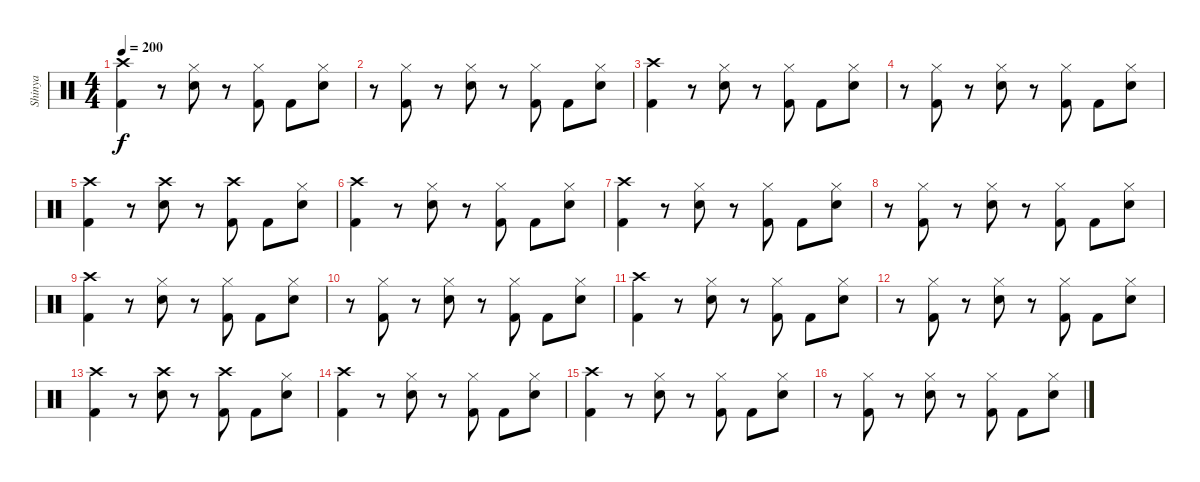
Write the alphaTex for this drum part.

\track ("Shinya" "Shinya") {instrument percussion}
\staff {score}
\articulation defaults
\ts (4 4)
\tempo 200
\clef neutral
\ks c
("Kick (hit) 2" "Crash high (hit)").4{dy f} r.8 ("Electric Snare (hit)" "Hi-Hat (closed)").8 r.8 ("Kick (hit) 2" "Hi-Hat (closed)").8 "Kick (hit) 2".8 ("Electric Snare (hit)" "Hi-Hat (closed)").8 |
r.8 ("Kick (hit) 2" "Hi-Hat (closed)").8 r.8 ("Electric Snare (hit)" "Hi-Hat (closed)").8 r.8 ("Kick (hit) 2" "Hi-Hat (closed)").8 "Kick (hit) 2".8 ("Electric Snare (hit)" "Hi-Hat (closed)").8 |
("Kick (hit) 2" "Crash high (hit)").4 r.8 ("Electric Snare (hit)" "Hi-Hat (closed)").8 r.8 ("Kick (hit) 2" "Hi-Hat (closed)").8 "Kick (hit) 2".8 ("Electric Snare (hit)" "Hi-Hat (closed)").8 |
r.8 ("Kick (hit) 2" "Hi-Hat (closed)").8 r.8 ("Electric Snare (hit)" "Hi-Hat (closed)").8 r.8 ("Kick (hit) 2" "Hi-Hat (closed)").8 "Kick (hit) 2".8 ("Electric Snare (hit)" "Hi-Hat (closed)").8 |
("Kick (hit) 2" "Crash high (hit)").4 r.8 ("Electric Snare (hit)" "Crash high (hit)").8 r.8 ("Kick (hit) 2" "Crash high (hit)").8 "Kick (hit) 2".8 ("Electric Snare (hit)" "Hi-Hat (closed)").8 |
("Kick (hit) 2" "Crash high (hit)").4 r.8 ("Electric Snare (hit)" "Hi-Hat (closed)").8 r.8 ("Kick (hit) 2" "Hi-Hat (closed)").8 "Kick (hit) 2".8 ("Electric Snare (hit)" "Hi-Hat (closed)").8 |
("Kick (hit) 2" "Crash high (hit)").4 r.8 ("Electric Snare (hit)" "Hi-Hat (closed)").8 r.8 ("Kick (hit) 2" "Hi-Hat (closed)").8 "Kick (hit) 2".8 ("Electric Snare (hit)" "Hi-Hat (closed)").8 |
r.8 ("Kick (hit) 2" "Hi-Hat (closed)").8 r.8 ("Electric Snare (hit)" "Hi-Hat (closed)").8 r.8 ("Kick (hit) 2" "Hi-Hat (closed)").8 "Kick (hit) 2".8 ("Electric Snare (hit)" "Hi-Hat (closed)").8 |
("Kick (hit) 2" "Crash high (hit)").4 r.8 ("Electric Snare (hit)" "Hi-Hat (closed)").8 r.8 ("Kick (hit) 2" "Hi-Hat (closed)").8 "Kick (hit) 2".8 ("Electric Snare (hit)" "Hi-Hat (closed)").8 |
r.8 ("Kick (hit) 2" "Hi-Hat (closed)").8 r.8 ("Electric Snare (hit)" "Hi-Hat (closed)").8 r.8 ("Kick (hit) 2" "Hi-Hat (closed)").8 "Kick (hit) 2".8 ("Electric Snare (hit)" "Hi-Hat (closed)").8 |
("Kick (hit) 2" "Crash high (hit)").4 r.8 ("Electric Snare (hit)" "Hi-Hat (closed)").8 r.8 ("Kick (hit) 2" "Hi-Hat (closed)").8 "Kick (hit) 2".8 ("Electric Snare (hit)" "Hi-Hat (closed)").8 |
r.8 ("Kick (hit) 2" "Hi-Hat (closed)").8 r.8 ("Electric Snare (hit)" "Hi-Hat (closed)").8 r.8 ("Kick (hit) 2" "Hi-Hat (closed)").8 "Kick (hit) 2".8 ("Electric Snare (hit)" "Hi-Hat (closed)").8 |
("Kick (hit) 2" "Crash high (hit)").4 r.8 ("Electric Snare (hit)" "Crash high (hit)").8 r.8 ("Kick (hit) 2" "Crash high (hit)").8 "Kick (hit) 2".8 ("Electric Snare (hit)" "Hi-Hat (closed)").8 |
("Kick (hit) 2" "Crash high (hit)").4 r.8 ("Electric Snare (hit)" "Hi-Hat (closed)").8 r.8 ("Kick (hit) 2" "Hi-Hat (closed)").8 "Kick (hit) 2".8 ("Electric Snare (hit)" "Hi-Hat (closed)").8 |
("Kick (hit) 2" "Crash high (hit)").4 r.8 ("Electric Snare (hit)" "Hi-Hat (closed)").8 r.8 ("Kick (hit) 2" "Hi-Hat (closed)").8 "Kick (hit) 2".8 ("Electric Snare (hit)" "Hi-Hat (closed)").8 |
r.8 ("Kick (hit) 2" "Hi-Hat (closed)").8 r.8 ("Electric Snare (hit)" "Hi-Hat (closed)").8 r.8 ("Kick (hit) 2" "Hi-Hat (closed)").8 "Kick (hit) 2".8 ("Electric Snare (hit)" "Hi-Hat (closed)").8
